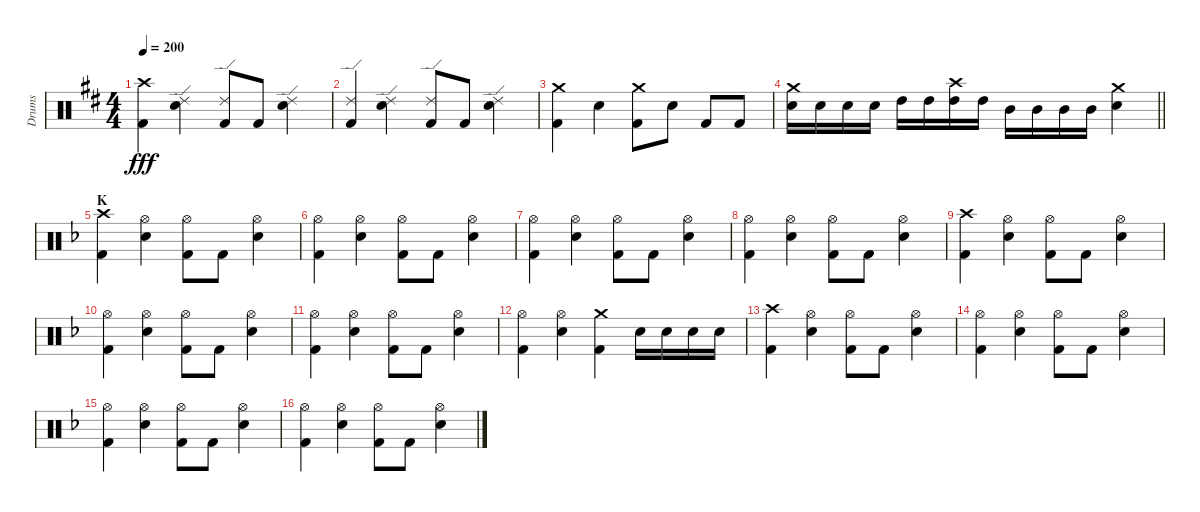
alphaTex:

\track ("Drums" "Drums") {instrument percussion}
\staff {score}
\articulation defaults
\ts (4 4)
\tempo 200
\clef neutral
\ks d
("Crash high (hit)" "Kick (hit) 2").4{dy fff} ("Ride (edge) 2" "Snare (hit) 2").4 ("Ride (edge) 2" "Kick (hit) 2").8 "Kick (hit) 2".8 ("Ride (edge) 2" "Snare (hit) 2").4 |
("Ride (edge) 2" "Kick (hit) 2").4 ("Ride (edge) 2" "Snare (hit) 2").4 ("Ride (edge) 2" "Kick (hit) 2").8 "Kick (hit) 2".8 ("Ride (edge) 2" "Snare (hit) 2").4 |
("Crash medium (hit)" "Kick (hit) 2").4 "Snare (hit) 2".4 ("Crash medium (hit)" "Kick (hit) 2").8 "Snare (hit) 2".8 "Kick (hit) 2".8 "Kick (hit) 2".8 |
\barLineRight lightlight
("Crash medium (hit)" "Snare (hit) 2").16 "Snare (hit) 2".16 "Snare (hit) 2".16 "Snare (hit) 2".16 "High Tom (hit)".16 "High Tom (hit)".16 ("Crash high (hit)" "High Tom (hit)").16 "High Tom (hit)".16 "Mid Tom (hit)".16 "Mid Tom (hit)".16 "Mid Tom (hit)".16 "Mid Tom (hit)".16 ("Crash medium (hit)" "Snare (hit) 2").4 |
\section ("" "K")
\ks dminor
("Crash high (hit)" "Kick (hit) 2").4 ("Hi-Hat (open)" "Snare (hit) 2").4 ("Hi-Hat (open)" "Kick (hit) 2").8 "Kick (hit) 2".8 ("Hi-Hat (open)" "Snare (hit) 2").4 |
("Hi-Hat (open)" "Kick (hit) 2").4 ("Hi-Hat (open)" "Snare (hit) 2").4 ("Hi-Hat (open)" "Kick (hit) 2").8 "Kick (hit) 2".8 ("Hi-Hat (open)" "Snare (hit) 2").4 |
("Hi-Hat (open)" "Kick (hit) 2").4 ("Hi-Hat (open)" "Snare (hit) 2").4 ("Hi-Hat (open)" "Kick (hit) 2").8 "Kick (hit) 2".8 ("Hi-Hat (open)" "Snare (hit) 2").4 |
("Hi-Hat (open)" "Kick (hit) 2").4 ("Hi-Hat (open)" "Snare (hit) 2").4 ("Hi-Hat (open)" "Kick (hit) 2").8 "Kick (hit) 2".8 ("Hi-Hat (open)" "Snare (hit) 2").4 |
("Crash high (hit)" "Kick (hit) 2").4 ("Hi-Hat (open)" "Snare (hit) 2").4 ("Hi-Hat (open)" "Kick (hit) 2").8 "Kick (hit) 2".8 ("Hi-Hat (open)" "Snare (hit) 2").4 |
("Hi-Hat (open)" "Kick (hit) 2").4 ("Hi-Hat (open)" "Snare (hit) 2").4 ("Hi-Hat (open)" "Kick (hit) 2").8 "Kick (hit) 2".8 ("Hi-Hat (open)" "Snare (hit) 2").4 |
("Hi-Hat (open)" "Kick (hit) 2").4 ("Hi-Hat (open)" "Snare (hit) 2").4 ("Hi-Hat (open)" "Kick (hit) 2").8 "Kick (hit) 2".8 ("Hi-Hat (open)" "Snare (hit) 2").4 |
("Hi-Hat (open)" "Kick (hit) 2").4 ("Hi-Hat (open)" "Snare (hit) 2").4 ("Crash medium (hit)" "Kick (hit) 2").4 "Snare (hit) 2".16 "Snare (hit) 2".16 "Snare (hit) 2".16 "Snare (hit) 2".16 |
("Crash high (hit)" "Kick (hit) 2").4 ("Hi-Hat (open)" "Snare (hit) 2").4 ("Hi-Hat (open)" "Kick (hit) 2").8 "Kick (hit) 2".8 ("Hi-Hat (open)" "Snare (hit) 2").4 |
("Hi-Hat (open)" "Kick (hit) 2").4 ("Hi-Hat (open)" "Snare (hit) 2").4 ("Hi-Hat (open)" "Kick (hit) 2").8 "Kick (hit) 2".8 ("Hi-Hat (open)" "Snare (hit) 2").4 |
("Hi-Hat (open)" "Kick (hit) 2").4 ("Hi-Hat (open)" "Snare (hit) 2").4 ("Hi-Hat (open)" "Kick (hit) 2").8 "Kick (hit) 2".8 ("Hi-Hat (open)" "Snare (hit) 2").4 |
("Hi-Hat (open)" "Kick (hit) 2").4 ("Hi-Hat (open)" "Snare (hit) 2").4 ("Hi-Hat (open)" "Kick (hit) 2").8 "Kick (hit) 2".8 ("Hi-Hat (open)" "Snare (hit) 2").4
